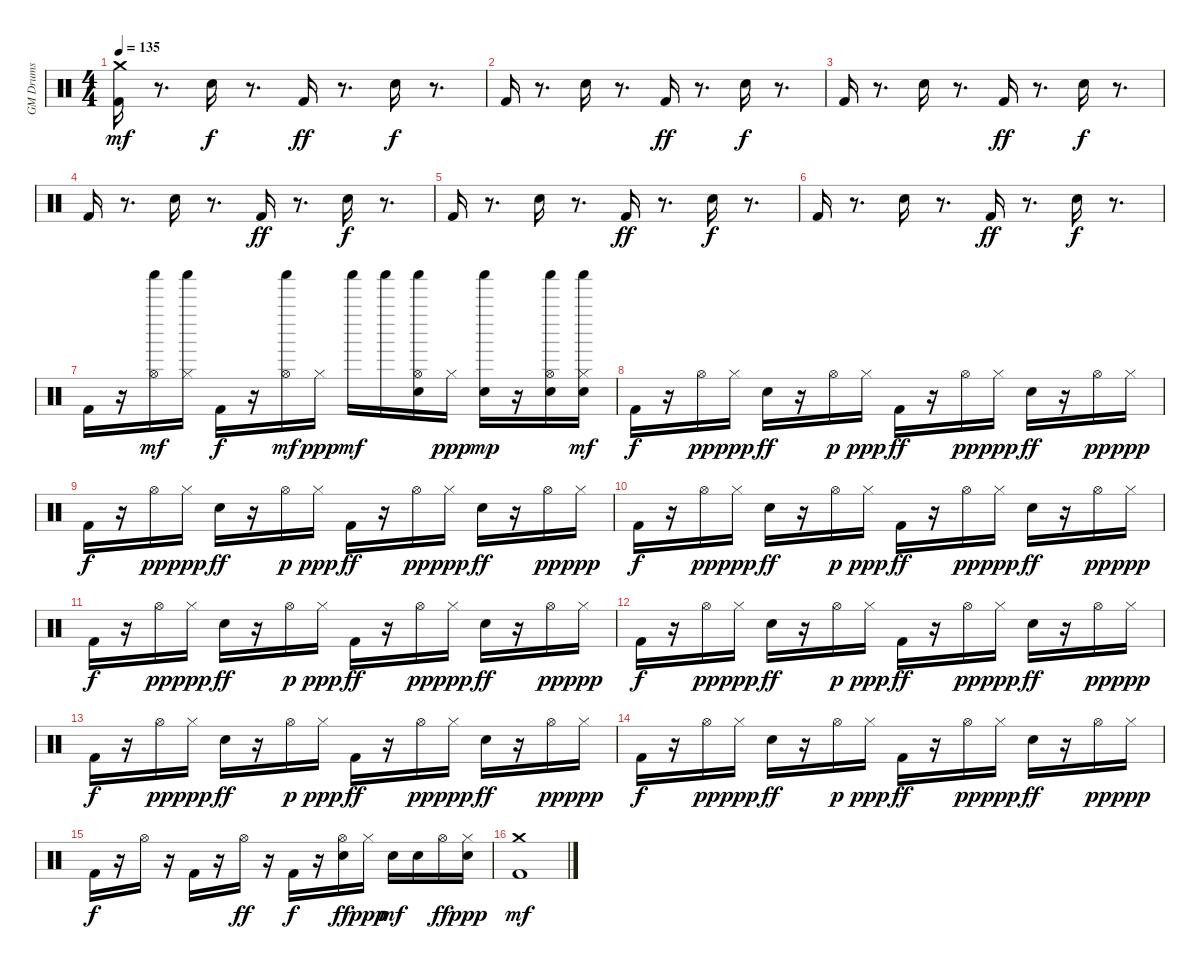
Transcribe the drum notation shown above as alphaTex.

\track ("GM Drums" "GM Drums") {instrument percussion}
\staff {score}
\articulation defaults
\ts (4 4)
\tempo 135
\clef neutral
\ks c
("Kick (hit) 2" "Crash medium (hit)").16{dy mf} r.8{d} "Snare (hit) 2".16{dy f} r.8{d} "Kick (hit) 2".16{dy ff} r.8{d} "Snare (hit) 2".16{dy f} r.8{d} |
"Kick (hit) 2".16 r.8{d} "Snare (hit) 2".16 r.8{d} "Kick (hit) 2".16{dy ff} r.8{d} "Snare (hit) 2".16{dy f} r.8{d} |
"Kick (hit) 2".16 r.8{d} "Snare (hit) 2".16 r.8{d} "Kick (hit) 2".16{dy ff} r.8{d} "Snare (hit) 2".16{dy f} r.8{d} |
"Kick (hit) 2".16 r.8{d} "Snare (hit) 2".16 r.8{d} "Kick (hit) 2".16{dy ff} r.8{d} "Snare (hit) 2".16{dy f} r.8{d} |
"Kick (hit) 2".16 r.8{d} "Snare (hit) 2".16 r.8{d} "Kick (hit) 2".16{dy ff} r.8{d} "Snare (hit) 2".16{dy f} r.8{d} |
"Kick (hit) 2".16 r.8{d} "Snare (hit) 2".16 r.8{d} "Kick (hit) 2".16{dy ff} r.8{d} "Snare (hit) 2".16{dy f} r.8{d} |
"Kick (hit) 2".16 r.16 ("Hi-Hat (open)" "Shaker (hit)").16{dy mf} ("Hi-Hat (closed)" "Shaker (hit)").16 "Kick (hit) 2".16{dy f} r.16 ("Hi-Hat (open)" "Shaker (hit)").16{dy mf} "Hi-Hat (closed)".16{dy ppp} "Shaker (hit)".16{dy mf} "Shaker (hit)".16 ("Electric Snare (hit)" "Hi-Hat (open)" "Shaker (hit)").16 "Hi-Hat (closed)".16{dy ppp} ("Electric Snare (hit)" "Shaker (hit)").16{dy mp} r.16 ("Electric Snare (hit)" "Hi-Hat (open)" "Shaker (hit)").16 ("Electric Snare (hit)" "Hi-Hat (closed)" "Shaker (hit)").16{dy mf} |
"Kick (hit) 2".16{dy f} r.16 "Hi-Hat (open)".16{dy pp} "Hi-Hat (closed)".16{dy ppp} "Snare (hit) 2".16{dy ff} r.16 "Hi-Hat (open)".16{dy p} "Hi-Hat (closed)".16{dy ppp} "Kick (hit) 2".16{dy ff} r.16 "Hi-Hat (open)".16{dy pp} "Hi-Hat (closed)".16{dy ppp} "Snare (hit) 2".16{dy ff} r.16 "Hi-Hat (open)".16{dy pp} "Hi-Hat (closed)".16{dy ppp} |
"Kick (hit) 2".16{dy f} r.16 "Hi-Hat (open)".16{dy pp} "Hi-Hat (closed)".16{dy ppp} "Snare (hit) 2".16{dy ff} r.16 "Hi-Hat (open)".16{dy p} "Hi-Hat (closed)".16{dy ppp} "Kick (hit) 2".16{dy ff} r.16 "Hi-Hat (open)".16{dy pp} "Hi-Hat (closed)".16{dy ppp} "Snare (hit) 2".16{dy ff} r.16 "Hi-Hat (open)".16{dy pp} "Hi-Hat (closed)".16{dy ppp} |
"Kick (hit) 2".16{dy f} r.16 "Hi-Hat (open)".16{dy pp} "Hi-Hat (closed)".16{dy ppp} "Snare (hit) 2".16{dy ff} r.16 "Hi-Hat (open)".16{dy p} "Hi-Hat (closed)".16{dy ppp} "Kick (hit) 2".16{dy ff} r.16 "Hi-Hat (open)".16{dy pp} "Hi-Hat (closed)".16{dy ppp} "Snare (hit) 2".16{dy ff} r.16 "Hi-Hat (open)".16{dy pp} "Hi-Hat (closed)".16{dy ppp} |
"Kick (hit) 2".16{dy f} r.16 "Hi-Hat (open)".16{dy pp} "Hi-Hat (closed)".16{dy ppp} "Snare (hit) 2".16{dy ff} r.16 "Hi-Hat (open)".16{dy p} "Hi-Hat (closed)".16{dy ppp} "Kick (hit) 2".16{dy ff} r.16 "Hi-Hat (open)".16{dy pp} "Hi-Hat (closed)".16{dy ppp} "Snare (hit) 2".16{dy ff} r.16 "Hi-Hat (open)".16{dy pp} "Hi-Hat (closed)".16{dy ppp} |
"Kick (hit) 2".16{dy f} r.16 "Hi-Hat (open)".16{dy pp} "Hi-Hat (closed)".16{dy ppp} "Snare (hit) 2".16{dy ff} r.16 "Hi-Hat (open)".16{dy p} "Hi-Hat (closed)".16{dy ppp} "Kick (hit) 2".16{dy ff} r.16 "Hi-Hat (open)".16{dy pp} "Hi-Hat (closed)".16{dy ppp} "Snare (hit) 2".16{dy ff} r.16 "Hi-Hat (open)".16{dy pp} "Hi-Hat (closed)".16{dy ppp} |
"Kick (hit) 2".16{dy f} r.16 "Hi-Hat (open)".16{dy pp} "Hi-Hat (closed)".16{dy ppp} "Snare (hit) 2".16{dy ff} r.16 "Hi-Hat (open)".16{dy p} "Hi-Hat (closed)".16{dy ppp} "Kick (hit) 2".16{dy ff} r.16 "Hi-Hat (open)".16{dy pp} "Hi-Hat (closed)".16{dy ppp} "Snare (hit) 2".16{dy ff} r.16 "Hi-Hat (open)".16{dy pp} "Hi-Hat (closed)".16{dy ppp} |
"Kick (hit) 2".16{dy f} r.16 "Hi-Hat (open)".16{dy pp} "Hi-Hat (closed)".16{dy ppp} "Snare (hit) 2".16{dy ff} r.16 "Hi-Hat (open)".16{dy p} "Hi-Hat (closed)".16{dy ppp} "Kick (hit) 2".16{dy ff} r.16 "Hi-Hat (open)".16{dy pp} "Hi-Hat (closed)".16{dy ppp} "Snare (hit) 2".16{dy ff} r.16 "Hi-Hat (open)".16{dy pp} "Hi-Hat (closed)".16{dy ppp} |
"Kick (hit) 2".16{dy f} r.16 "Hi-Hat (open)".16 r.16 "Kick (hit) 2".16 r.16 "Hi-Hat (open)".16{dy ff} r.16 "Kick (hit) 2".16{dy f} r.16 ("Electric Snare (hit)" "Hi-Hat (open)").16{dy ff} "Hi-Hat (closed)".16{dy ppp} "Electric Snare (hit)".16{dy mf} "Electric Snare (hit)".16 "Hi-Hat (open)".16{dy ff} ("Electric Snare (hit)" "Hi-Hat (closed)").16{dy ppp} |
("Kick (hit) 2" "Crash medium (hit)").1{dy mf}
